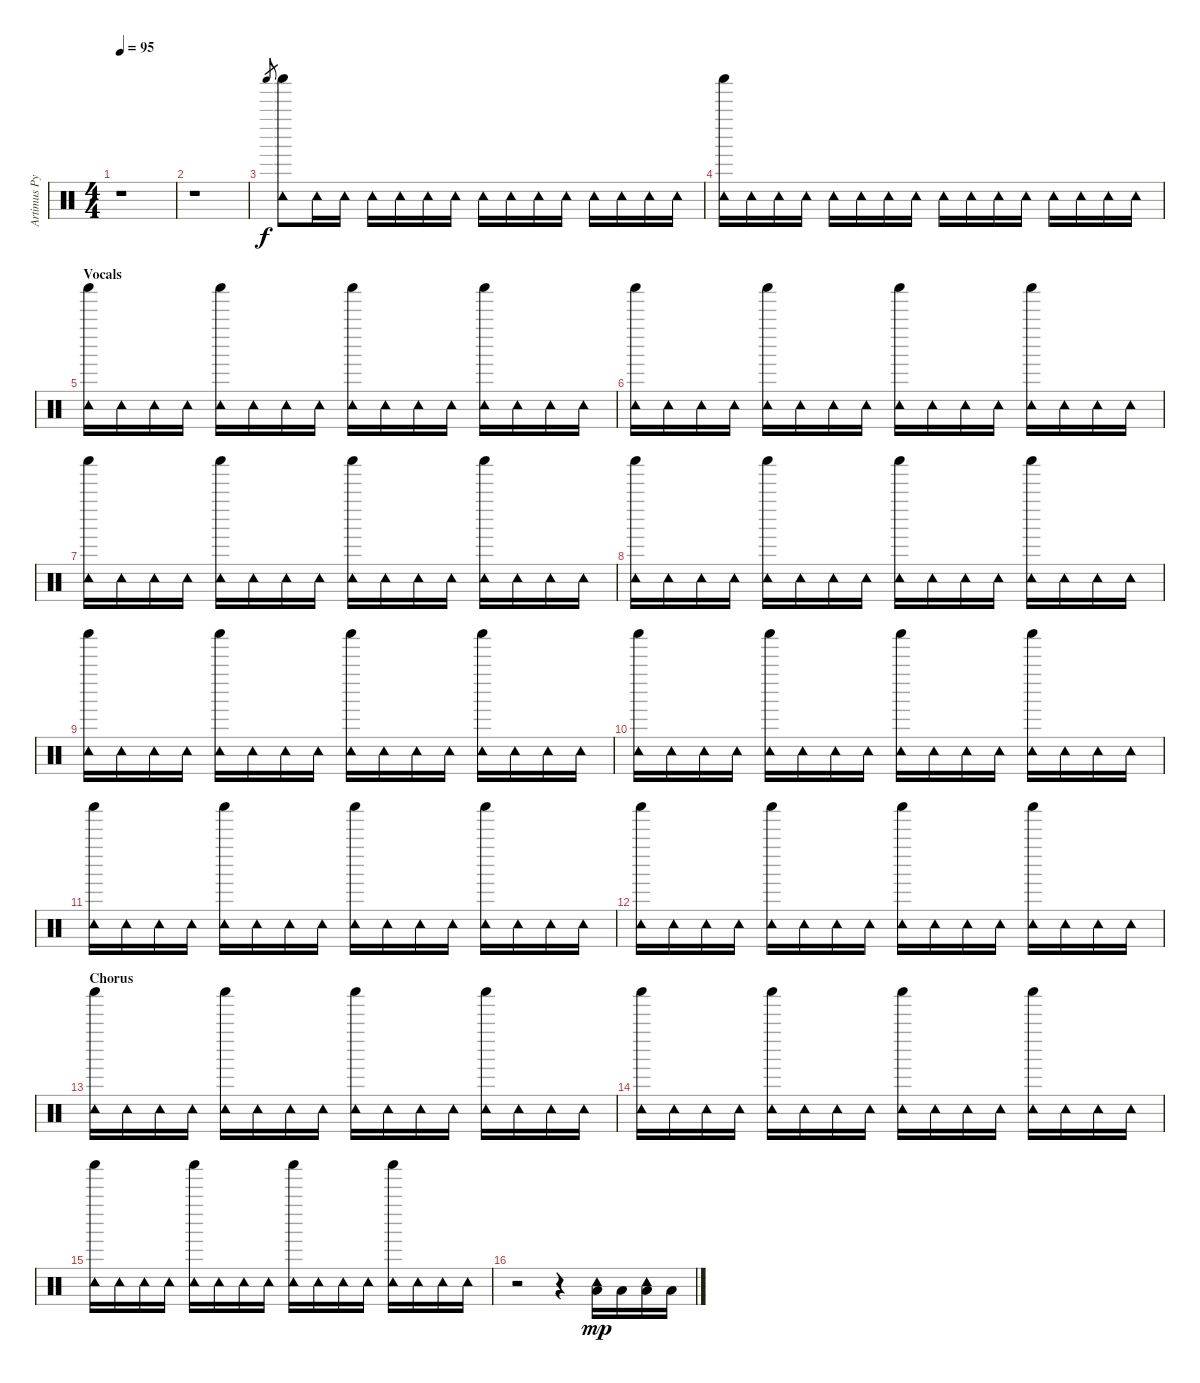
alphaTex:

\track ("Artimus Pyle" "Artimus Py") {instrument percussion}
\staff {score}
\articulation defaults
\ts (4 4)
\tempo 95
\clef neutral
\ks c
r.1{dy f} |
r.1 |
"Shaker (hit)".8{gr} ("Tambourine (hit)" "Shaker (hit)").8 "Tambourine (hit)".16 "Tambourine (hit)".16 "Tambourine (hit)".16 "Tambourine (hit)".16 "Tambourine (hit)".16 "Tambourine (hit)".16 "Tambourine (hit)".16 "Tambourine (hit)".16 "Tambourine (hit)".16 "Tambourine (hit)".16 "Tambourine (hit)".16 "Tambourine (hit)".16 "Tambourine (hit)".16 "Tambourine (hit)".16 |
("Tambourine (hit)" "Shaker (hit)").16 "Tambourine (hit)".16 "Tambourine (hit)".16 "Tambourine (hit)".16 "Tambourine (hit)".16 "Tambourine (hit)".16 "Tambourine (hit)".16 "Tambourine (hit)".16 "Tambourine (hit)".16 "Tambourine (hit)".16 "Tambourine (hit)".16 "Tambourine (hit)".16 "Tambourine (hit)".16 "Tambourine (hit)".16 "Tambourine (hit)".16 "Tambourine (hit)".16 |
\section ("" "Vocals")
("Tambourine (hit)" "Shaker (hit)").16 "Tambourine (hit)".16 "Tambourine (hit)".16 "Tambourine (hit)".16 ("Tambourine (hit)" "Shaker (hit)").16 "Tambourine (hit)".16 "Tambourine (hit)".16 "Tambourine (hit)".16 ("Tambourine (hit)" "Shaker (hit)").16 "Tambourine (hit)".16 "Tambourine (hit)".16 "Tambourine (hit)".16 ("Tambourine (hit)" "Shaker (hit)").16 "Tambourine (hit)".16 "Tambourine (hit)".16 "Tambourine (hit)".16 |
("Tambourine (hit)" "Shaker (hit)").16 "Tambourine (hit)".16 "Tambourine (hit)".16 "Tambourine (hit)".16 ("Tambourine (hit)" "Shaker (hit)").16 "Tambourine (hit)".16 "Tambourine (hit)".16 "Tambourine (hit)".16 ("Tambourine (hit)" "Shaker (hit)").16 "Tambourine (hit)".16 "Tambourine (hit)".16 "Tambourine (hit)".16 ("Tambourine (hit)" "Shaker (hit)").16 "Tambourine (hit)".16 "Tambourine (hit)".16 "Tambourine (hit)".16 |
("Tambourine (hit)" "Shaker (hit)").16 "Tambourine (hit)".16 "Tambourine (hit)".16 "Tambourine (hit)".16 ("Tambourine (hit)" "Shaker (hit)").16 "Tambourine (hit)".16 "Tambourine (hit)".16 "Tambourine (hit)".16 ("Tambourine (hit)" "Shaker (hit)").16 "Tambourine (hit)".16 "Tambourine (hit)".16 "Tambourine (hit)".16 ("Tambourine (hit)" "Shaker (hit)").16 "Tambourine (hit)".16 "Tambourine (hit)".16 "Tambourine (hit)".16 |
("Tambourine (hit)" "Shaker (hit)").16 "Tambourine (hit)".16 "Tambourine (hit)".16 "Tambourine (hit)".16 ("Tambourine (hit)" "Shaker (hit)").16 "Tambourine (hit)".16 "Tambourine (hit)".16 "Tambourine (hit)".16 ("Tambourine (hit)" "Shaker (hit)").16 "Tambourine (hit)".16 "Tambourine (hit)".16 "Tambourine (hit)".16 ("Tambourine (hit)" "Shaker (hit)").16 "Tambourine (hit)".16 "Tambourine (hit)".16 "Tambourine (hit)".16 |
("Tambourine (hit)" "Shaker (hit)").16 "Tambourine (hit)".16 "Tambourine (hit)".16 "Tambourine (hit)".16 ("Tambourine (hit)" "Shaker (hit)").16 "Tambourine (hit)".16 "Tambourine (hit)".16 "Tambourine (hit)".16 ("Tambourine (hit)" "Shaker (hit)").16 "Tambourine (hit)".16 "Tambourine (hit)".16 "Tambourine (hit)".16 ("Tambourine (hit)" "Shaker (hit)").16 "Tambourine (hit)".16 "Tambourine (hit)".16 "Tambourine (hit)".16 |
("Tambourine (hit)" "Shaker (hit)").16 "Tambourine (hit)".16 "Tambourine (hit)".16 "Tambourine (hit)".16 ("Tambourine (hit)" "Shaker (hit)").16 "Tambourine (hit)".16 "Tambourine (hit)".16 "Tambourine (hit)".16 ("Tambourine (hit)" "Shaker (hit)").16 "Tambourine (hit)".16 "Tambourine (hit)".16 "Tambourine (hit)".16 ("Tambourine (hit)" "Shaker (hit)").16 "Tambourine (hit)".16 "Tambourine (hit)".16 "Tambourine (hit)".16 |
("Tambourine (hit)" "Shaker (hit)").16 "Tambourine (hit)".16 "Tambourine (hit)".16 "Tambourine (hit)".16 ("Tambourine (hit)" "Shaker (hit)").16 "Tambourine (hit)".16 "Tambourine (hit)".16 "Tambourine (hit)".16 ("Tambourine (hit)" "Shaker (hit)").16 "Tambourine (hit)".16 "Tambourine (hit)".16 "Tambourine (hit)".16 ("Tambourine (hit)" "Shaker (hit)").16 "Tambourine (hit)".16 "Tambourine (hit)".16 "Tambourine (hit)".16 |
("Tambourine (hit)" "Shaker (hit)").16 "Tambourine (hit)".16 "Tambourine (hit)".16 "Tambourine (hit)".16 ("Tambourine (hit)" "Shaker (hit)").16 "Tambourine (hit)".16 "Tambourine (hit)".16 "Tambourine (hit)".16 ("Tambourine (hit)" "Shaker (hit)").16 "Tambourine (hit)".16 "Tambourine (hit)".16 "Tambourine (hit)".16 ("Tambourine (hit)" "Shaker (hit)").16 "Tambourine (hit)".16 "Tambourine (hit)".16 "Tambourine (hit)".16 |
\section ("" "Chorus")
("Tambourine (hit)" "Shaker (hit)").16 "Tambourine (hit)".16 "Tambourine (hit)".16 "Tambourine (hit)".16 ("Tambourine (hit)" "Shaker (hit)").16 "Tambourine (hit)".16 "Tambourine (hit)".16 "Tambourine (hit)".16 ("Tambourine (hit)" "Shaker (hit)").16 "Tambourine (hit)".16 "Tambourine (hit)".16 "Tambourine (hit)".16 ("Tambourine (hit)" "Shaker (hit)").16 "Tambourine (hit)".16 "Tambourine (hit)".16 "Tambourine (hit)".16 |
("Tambourine (hit)" "Shaker (hit)").16 "Tambourine (hit)".16 "Tambourine (hit)".16 "Tambourine (hit)".16 ("Tambourine (hit)" "Shaker (hit)").16 "Tambourine (hit)".16 "Tambourine (hit)".16 "Tambourine (hit)".16 ("Tambourine (hit)" "Shaker (hit)").16 "Tambourine (hit)".16 "Tambourine (hit)".16 "Tambourine (hit)".16 ("Tambourine (hit)" "Shaker (hit)").16 "Tambourine (hit)".16 "Tambourine (hit)".16 "Tambourine (hit)".16 |
("Tambourine (hit)" "Shaker (hit)").16 "Tambourine (hit)".16 "Tambourine (hit)".16 "Tambourine (hit)".16 ("Tambourine (hit)" "Shaker (hit)").16 "Tambourine (hit)".16 "Tambourine (hit)".16 "Tambourine (hit)".16 ("Tambourine (hit)" "Shaker (hit)").16 "Tambourine (hit)".16 "Tambourine (hit)".16 "Tambourine (hit)".16 ("Tambourine (hit)" "Shaker (hit)").16 "Tambourine (hit)".16 "Tambourine (hit)".16 "Tambourine (hit)".16 |
r.2 r.4 ("Tambourine (hit)" "Low Tom (hit)").16{dy mp} "Low Tom (hit)".16 ("Tambourine (hit)" "Low Tom (hit)").16 "Low Tom (hit)".16
